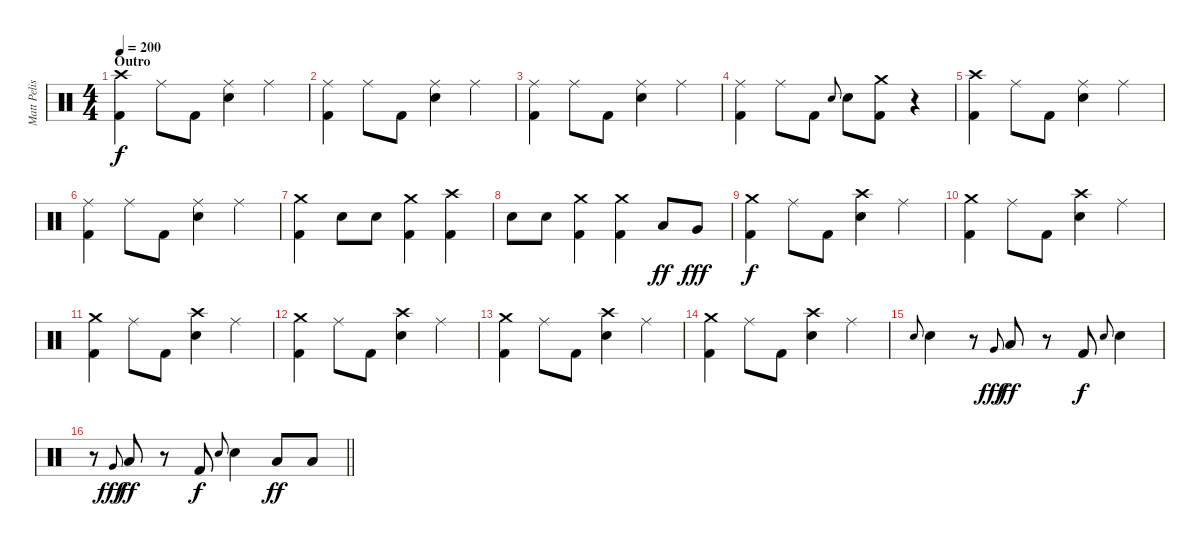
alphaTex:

\track ("Matt Pelissier" "Matt Pelis") {instrument percussion}
\staff {score}
\articulation defaults
\ts (4 4)
\section ("" "Outro")
\tempo 200
\clef neutral
\ks c
("Crash high (hit)" "Kick (hit) 2").4{dy f} "Ride (middle)".8 "Kick (hit) 2".8 ("Ride (middle)" "Snare (hit) 2").4 "Ride (middle)".4 |
("Ride (middle)" "Kick (hit) 2").4 "Ride (middle)".8 "Kick (hit) 2".8 ("Ride (middle)" "Snare (hit) 2").4 "Ride (middle)".4 |
("Ride (middle)" "Kick (hit) 2").4 "Ride (middle)".8 "Kick (hit) 2".8 ("Ride (middle)" "Snare (hit) 2").4 "Ride (middle)".4 |
("Ride (middle)" "Kick (hit) 2").4 "Ride (middle)".8 "Kick (hit) 2".8 "Snare (hit) 2".8{gr onbeat} "Snare (hit) 2".8 ("Crash medium (hit)" "Kick (hit) 2").8 r.4 |
("Crash high (hit)" "Kick (hit) 2").4 "Ride (middle)".8 "Kick (hit) 2".8 ("Ride (middle)" "Snare (hit) 2").4 "Ride (middle)".4 |
("Ride (middle)" "Kick (hit) 2").4 "Ride (middle)".8 "Kick (hit) 2".8 ("Ride (middle)" "Snare (hit) 2").4 "Ride (middle)".4 |
("Crash medium (hit)" "Kick (hit) 2").4 "Snare (hit) 2".8 "Snare (hit) 2".8 ("Crash medium (hit)" "Kick (hit) 2").4 ("Crash high (hit)" "Kick (hit) 2").4 |
"Snare (hit) 2".8 "Snare (hit) 2".8 ("Crash medium (hit)" "Kick (hit) 2").4 ("Crash medium (hit)" "Kick (hit) 2").4 "Low Tom (hit)".8{dy ff} "Very Low Tom (hit)".8{dy fff} |
("Crash medium (hit)" "Kick (hit) 2").4{dy f} "Ride (middle)".8 "Kick (hit) 2".8 ("Crash high (hit)" "Snare (hit) 2").4 "Ride (middle)".4 |
("Crash medium (hit)" "Kick (hit) 2").4 "Ride (middle)".8 "Kick (hit) 2".8 ("Crash high (hit)" "Snare (hit) 2").4 "Ride (middle)".4 |
("Crash medium (hit)" "Kick (hit) 2").4 "Ride (middle)".8 "Kick (hit) 2".8 ("Crash high (hit)" "Snare (hit) 2").4 "Ride (middle)".4 |
("Crash medium (hit)" "Kick (hit) 2").4 "Ride (middle)".8 "Kick (hit) 2".8 ("Crash high (hit)" "Snare (hit) 2").4 "Ride (middle)".4 |
("Crash medium (hit)" "Kick (hit) 2").4 "Ride (middle)".8 "Kick (hit) 2".8 ("Crash high (hit)" "Snare (hit) 2").4 "Ride (middle)".4 |
("Crash medium (hit)" "Kick (hit) 2").4 "Ride (middle)".8 "Kick (hit) 2".8 ("Crash high (hit)" "Snare (hit) 2").4 "Ride (middle)".4 |
"Snare (hit) 2".8{gr onbeat} "Snare (hit) 2".4 r.8 "Very Low Tom (hit)".8{gr onbeat dy fff} "Low Tom (hit)".8{dy ff} r.8 "Kick (hit) 2".8{dy f} "Snare (hit) 2".8{gr onbeat} "Snare (hit) 2".4 |
\barLineRight lightlight
r.8 "Very Low Tom (hit)".8{gr onbeat dy fff} "Low Tom (hit)".8{dy ff} r.8 "Kick (hit) 2".8{dy f} "Snare (hit) 2".8{gr onbeat} "Snare (hit) 2".4 "Low Tom (hit)".8{dy ff} "Low Tom (hit)".8
